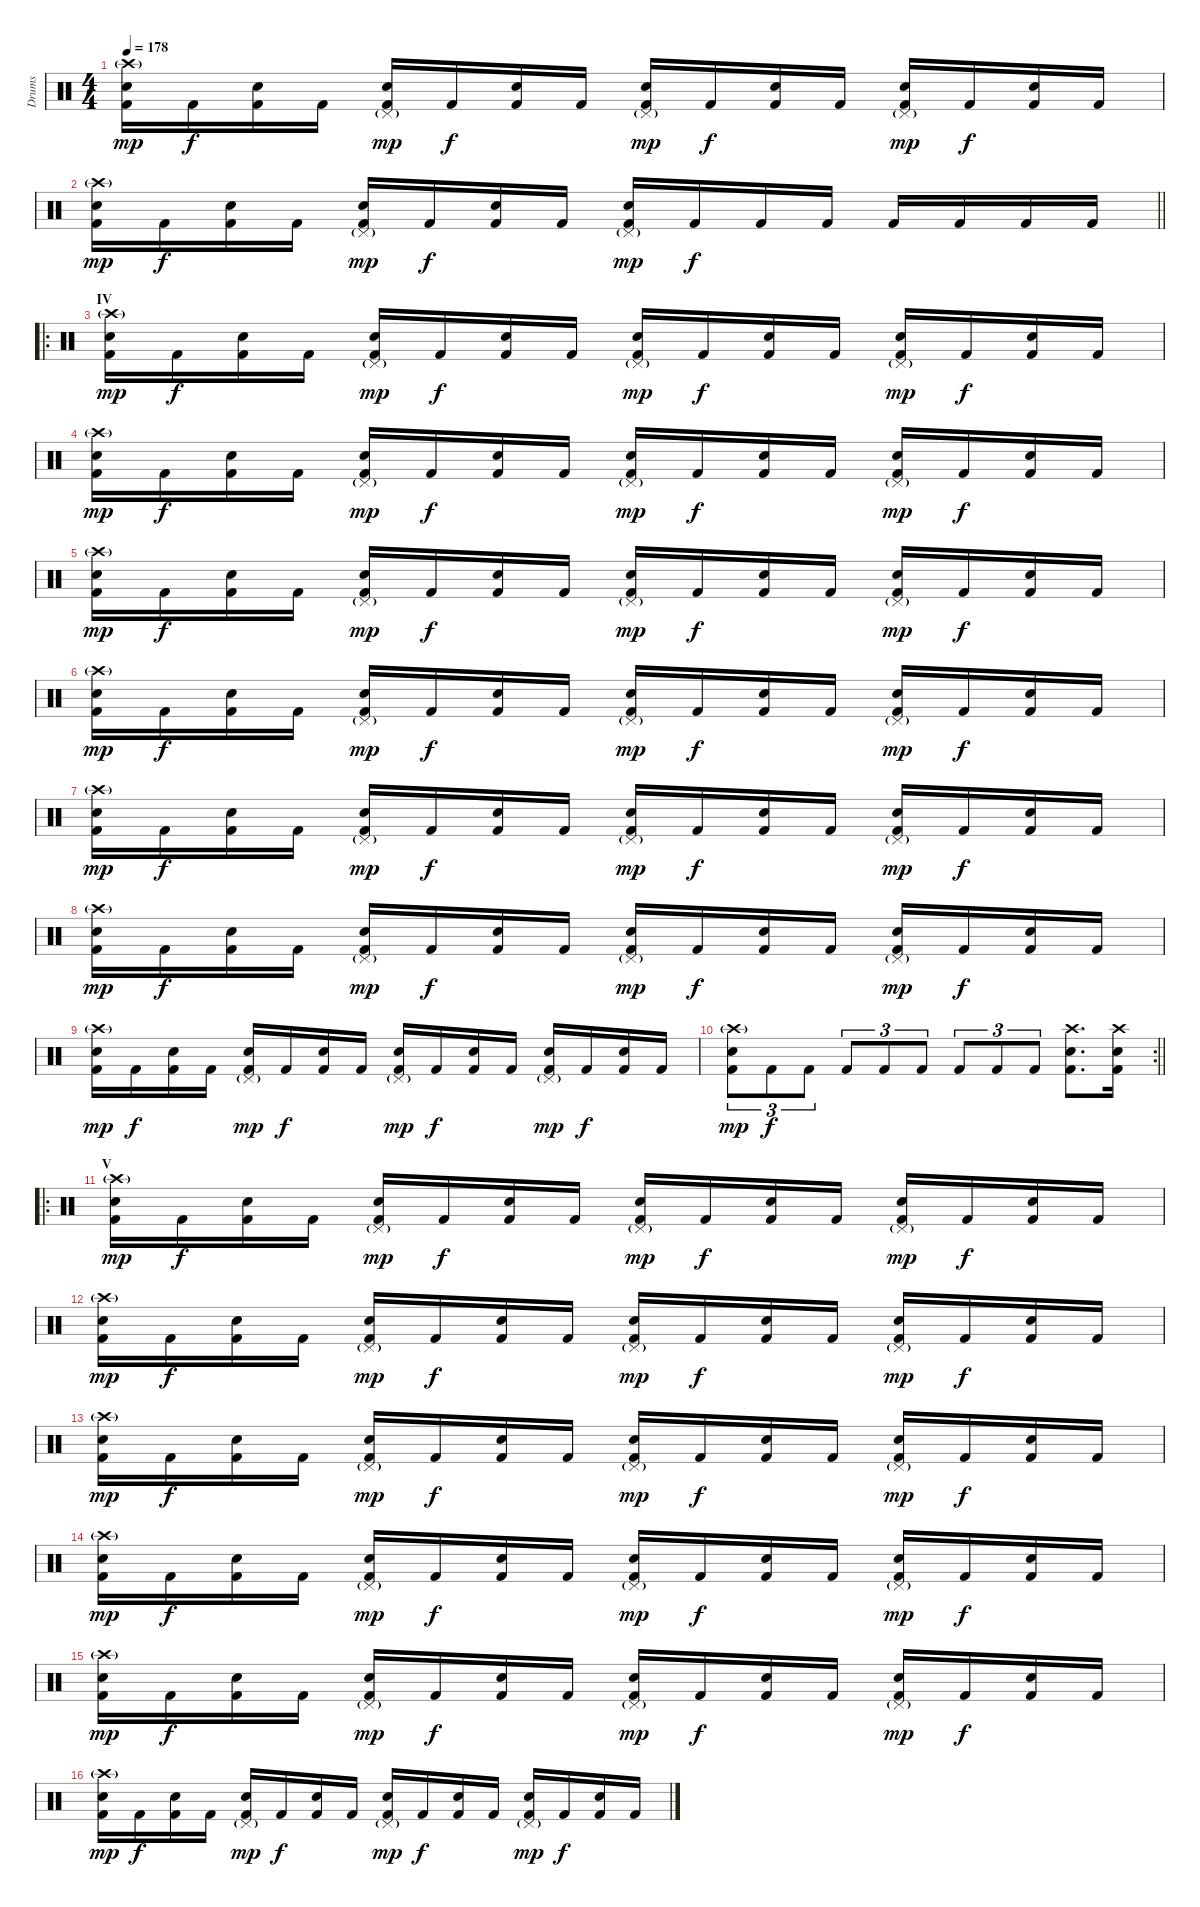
\track ("Drums" "Drums") {instrument percussion}
\staff {score}
\articulation defaults
\ts (4 4)
\tempo 178
\clef neutral
\ks c
("Crash high (hit)"{g} "Electric Snare (hit)" "Kick (hit) 2").16{dy mp} "Kick (hit) 2".16{dy f} ("Electric Snare (hit)" "Kick (hit) 2").16 "Kick (hit) 2".16 ("Pedal Hi-Hat (hit)"{g} "Electric Snare (hit)" "Kick (hit) 2").16{dy mp} "Kick (hit) 2".16{dy f} ("Electric Snare (hit)" "Kick (hit) 2").16 "Kick (hit) 2".16 ("Pedal Hi-Hat (hit)"{g} "Electric Snare (hit)" "Kick (hit) 2").16{dy mp} "Kick (hit) 2".16{dy f} ("Electric Snare (hit)" "Kick (hit) 2").16 "Kick (hit) 2".16 ("Pedal Hi-Hat (hit)"{g} "Electric Snare (hit)" "Kick (hit) 2").16{dy mp} "Kick (hit) 2".16{dy f} ("Electric Snare (hit)" "Kick (hit) 2").16 "Kick (hit) 2".16 |
\barLineRight lightlight
("Crash high (hit)"{g} "Electric Snare (hit)" "Kick (hit) 2").16{dy mp} "Kick (hit) 2".16{dy f} ("Electric Snare (hit)" "Kick (hit) 2").16 "Kick (hit) 2".16 ("Pedal Hi-Hat (hit)"{g} "Electric Snare (hit)" "Kick (hit) 2").16{dy mp} "Kick (hit) 2".16{dy f} ("Electric Snare (hit)" "Kick (hit) 2").16 "Kick (hit) 2".16 ("Pedal Hi-Hat (hit)"{g} "Electric Snare (hit)" "Kick (hit) 2").16{dy mp} "Kick (hit) 2".16{dy f} "Kick (hit) 2".16 "Kick (hit) 2".16 "Kick (hit) 2".16 "Kick (hit) 2".16 "Kick (hit) 2".16 "Kick (hit) 2".16 |
\ro
\section ("" "IV")
("Crash high (hit)"{g} "Electric Snare (hit)" "Kick (hit) 2").16{dy mp} "Kick (hit) 2".16{dy f} ("Electric Snare (hit)" "Kick (hit) 2").16 "Kick (hit) 2".16 ("Pedal Hi-Hat (hit)"{g} "Electric Snare (hit)" "Kick (hit) 2").16{dy mp} "Kick (hit) 2".16{dy f} ("Electric Snare (hit)" "Kick (hit) 2").16 "Kick (hit) 2".16 ("Pedal Hi-Hat (hit)"{g} "Electric Snare (hit)" "Kick (hit) 2").16{dy mp} "Kick (hit) 2".16{dy f} ("Electric Snare (hit)" "Kick (hit) 2").16 "Kick (hit) 2".16 ("Pedal Hi-Hat (hit)"{g} "Electric Snare (hit)" "Kick (hit) 2").16{dy mp} "Kick (hit) 2".16{dy f} ("Electric Snare (hit)" "Kick (hit) 2").16 "Kick (hit) 2".16 |
("Crash high (hit)"{g} "Electric Snare (hit)" "Kick (hit) 2").16{dy mp} "Kick (hit) 2".16{dy f} ("Electric Snare (hit)" "Kick (hit) 2").16 "Kick (hit) 2".16 ("Pedal Hi-Hat (hit)"{g} "Electric Snare (hit)" "Kick (hit) 2").16{dy mp} "Kick (hit) 2".16{dy f} ("Electric Snare (hit)" "Kick (hit) 2").16 "Kick (hit) 2".16 ("Pedal Hi-Hat (hit)"{g} "Electric Snare (hit)" "Kick (hit) 2").16{dy mp} "Kick (hit) 2".16{dy f} ("Electric Snare (hit)" "Kick (hit) 2").16 "Kick (hit) 2".16 ("Pedal Hi-Hat (hit)"{g} "Electric Snare (hit)" "Kick (hit) 2").16{dy mp} "Kick (hit) 2".16{dy f} ("Electric Snare (hit)" "Kick (hit) 2").16 "Kick (hit) 2".16 |
("Crash high (hit)"{g} "Electric Snare (hit)" "Kick (hit) 2").16{dy mp} "Kick (hit) 2".16{dy f} ("Electric Snare (hit)" "Kick (hit) 2").16 "Kick (hit) 2".16 ("Pedal Hi-Hat (hit)"{g} "Electric Snare (hit)" "Kick (hit) 2").16{dy mp} "Kick (hit) 2".16{dy f} ("Electric Snare (hit)" "Kick (hit) 2").16 "Kick (hit) 2".16 ("Pedal Hi-Hat (hit)"{g} "Electric Snare (hit)" "Kick (hit) 2").16{dy mp} "Kick (hit) 2".16{dy f} ("Electric Snare (hit)" "Kick (hit) 2").16 "Kick (hit) 2".16 ("Pedal Hi-Hat (hit)"{g} "Electric Snare (hit)" "Kick (hit) 2").16{dy mp} "Kick (hit) 2".16{dy f} ("Electric Snare (hit)" "Kick (hit) 2").16 "Kick (hit) 2".16 |
("Crash high (hit)"{g} "Electric Snare (hit)" "Kick (hit) 2").16{dy mp} "Kick (hit) 2".16{dy f} ("Electric Snare (hit)" "Kick (hit) 2").16 "Kick (hit) 2".16 ("Pedal Hi-Hat (hit)"{g} "Electric Snare (hit)" "Kick (hit) 2").16{dy mp} "Kick (hit) 2".16{dy f} ("Electric Snare (hit)" "Kick (hit) 2").16 "Kick (hit) 2".16 ("Pedal Hi-Hat (hit)"{g} "Electric Snare (hit)" "Kick (hit) 2").16{dy mp} "Kick (hit) 2".16{dy f} ("Electric Snare (hit)" "Kick (hit) 2").16 "Kick (hit) 2".16 ("Pedal Hi-Hat (hit)"{g} "Electric Snare (hit)" "Kick (hit) 2").16{dy mp} "Kick (hit) 2".16{dy f} ("Electric Snare (hit)" "Kick (hit) 2").16 "Kick (hit) 2".16 |
("Crash high (hit)"{g} "Electric Snare (hit)" "Kick (hit) 2").16{dy mp} "Kick (hit) 2".16{dy f} ("Electric Snare (hit)" "Kick (hit) 2").16 "Kick (hit) 2".16 ("Pedal Hi-Hat (hit)"{g} "Electric Snare (hit)" "Kick (hit) 2").16{dy mp} "Kick (hit) 2".16{dy f} ("Electric Snare (hit)" "Kick (hit) 2").16 "Kick (hit) 2".16 ("Pedal Hi-Hat (hit)"{g} "Electric Snare (hit)" "Kick (hit) 2").16{dy mp} "Kick (hit) 2".16{dy f} ("Electric Snare (hit)" "Kick (hit) 2").16 "Kick (hit) 2".16 ("Pedal Hi-Hat (hit)"{g} "Electric Snare (hit)" "Kick (hit) 2").16{dy mp} "Kick (hit) 2".16{dy f} ("Electric Snare (hit)" "Kick (hit) 2").16 "Kick (hit) 2".16 |
("Crash high (hit)"{g} "Electric Snare (hit)" "Kick (hit) 2").16{dy mp} "Kick (hit) 2".16{dy f} ("Electric Snare (hit)" "Kick (hit) 2").16 "Kick (hit) 2".16 ("Pedal Hi-Hat (hit)"{g} "Electric Snare (hit)" "Kick (hit) 2").16{dy mp} "Kick (hit) 2".16{dy f} ("Electric Snare (hit)" "Kick (hit) 2").16 "Kick (hit) 2".16 ("Pedal Hi-Hat (hit)"{g} "Electric Snare (hit)" "Kick (hit) 2").16{dy mp} "Kick (hit) 2".16{dy f} ("Electric Snare (hit)" "Kick (hit) 2").16 "Kick (hit) 2".16 ("Pedal Hi-Hat (hit)"{g} "Electric Snare (hit)" "Kick (hit) 2").16{dy mp} "Kick (hit) 2".16{dy f} ("Electric Snare (hit)" "Kick (hit) 2").16 "Kick (hit) 2".16 |
("Crash high (hit)"{g} "Electric Snare (hit)" "Kick (hit) 2").16{dy mp} "Kick (hit) 2".16{dy f} ("Electric Snare (hit)" "Kick (hit) 2").16 "Kick (hit) 2".16 ("Pedal Hi-Hat (hit)"{g} "Electric Snare (hit)" "Kick (hit) 2").16{dy mp} "Kick (hit) 2".16{dy f} ("Electric Snare (hit)" "Kick (hit) 2").16 "Kick (hit) 2".16 ("Pedal Hi-Hat (hit)"{g} "Electric Snare (hit)" "Kick (hit) 2").16{dy mp} "Kick (hit) 2".16{dy f} ("Electric Snare (hit)" "Kick (hit) 2").16 "Kick (hit) 2".16 ("Pedal Hi-Hat (hit)"{g} "Electric Snare (hit)" "Kick (hit) 2").16{dy mp} "Kick (hit) 2".16{dy f} ("Electric Snare (hit)" "Kick (hit) 2").16 "Kick (hit) 2".16 |
\rc 2
\barLineRight lightlight
("Crash high (hit)"{g} "Electric Snare (hit)" "Kick (hit) 2").8{tu (3 2) dy mp} "Kick (hit) 2".8{tu (3 2) dy f} "Kick (hit) 2".8{tu (3 2)} "Kick (hit) 2".8{tu (3 2)} "Kick (hit) 2".8{tu (3 2)} "Kick (hit) 2".8{tu (3 2)} "Kick (hit) 2".8{tu (3 2)} "Kick (hit) 2".8{tu (3 2)} "Kick (hit) 2".8{tu (3 2)} ("Crash high (hit)" "Electric Snare (hit)" "Kick (hit) 2").8{d} ("Crash high (hit)" "Electric Snare (hit)" "Kick (hit) 2").16 |
\ro
\section ("" "V")
("Crash high (hit)"{g} "Electric Snare (hit)" "Kick (hit) 2").16{dy mp} "Kick (hit) 2".16{dy f} ("Electric Snare (hit)" "Kick (hit) 2").16 "Kick (hit) 2".16 ("Pedal Hi-Hat (hit)"{g} "Electric Snare (hit)" "Kick (hit) 2").16{dy mp} "Kick (hit) 2".16{dy f} ("Electric Snare (hit)" "Kick (hit) 2").16 "Kick (hit) 2".16 ("Pedal Hi-Hat (hit)"{g} "Electric Snare (hit)" "Kick (hit) 2").16{dy mp} "Kick (hit) 2".16{dy f} ("Electric Snare (hit)" "Kick (hit) 2").16 "Kick (hit) 2".16 ("Pedal Hi-Hat (hit)"{g} "Electric Snare (hit)" "Kick (hit) 2").16{dy mp} "Kick (hit) 2".16{dy f} ("Electric Snare (hit)" "Kick (hit) 2").16 "Kick (hit) 2".16 |
("Crash high (hit)"{g} "Electric Snare (hit)" "Kick (hit) 2").16{dy mp} "Kick (hit) 2".16{dy f} ("Electric Snare (hit)" "Kick (hit) 2").16 "Kick (hit) 2".16 ("Pedal Hi-Hat (hit)"{g} "Electric Snare (hit)" "Kick (hit) 2").16{dy mp} "Kick (hit) 2".16{dy f} ("Electric Snare (hit)" "Kick (hit) 2").16 "Kick (hit) 2".16 ("Pedal Hi-Hat (hit)"{g} "Electric Snare (hit)" "Kick (hit) 2").16{dy mp} "Kick (hit) 2".16{dy f} ("Electric Snare (hit)" "Kick (hit) 2").16 "Kick (hit) 2".16 ("Pedal Hi-Hat (hit)"{g} "Electric Snare (hit)" "Kick (hit) 2").16{dy mp} "Kick (hit) 2".16{dy f} ("Electric Snare (hit)" "Kick (hit) 2").16 "Kick (hit) 2".16 |
("Crash high (hit)"{g} "Electric Snare (hit)" "Kick (hit) 2").16{dy mp} "Kick (hit) 2".16{dy f} ("Electric Snare (hit)" "Kick (hit) 2").16 "Kick (hit) 2".16 ("Pedal Hi-Hat (hit)"{g} "Electric Snare (hit)" "Kick (hit) 2").16{dy mp} "Kick (hit) 2".16{dy f} ("Electric Snare (hit)" "Kick (hit) 2").16 "Kick (hit) 2".16 ("Pedal Hi-Hat (hit)"{g} "Electric Snare (hit)" "Kick (hit) 2").16{dy mp} "Kick (hit) 2".16{dy f} ("Electric Snare (hit)" "Kick (hit) 2").16 "Kick (hit) 2".16 ("Pedal Hi-Hat (hit)"{g} "Electric Snare (hit)" "Kick (hit) 2").16{dy mp} "Kick (hit) 2".16{dy f} ("Electric Snare (hit)" "Kick (hit) 2").16 "Kick (hit) 2".16 |
("Crash high (hit)"{g} "Electric Snare (hit)" "Kick (hit) 2").16{dy mp} "Kick (hit) 2".16{dy f} ("Electric Snare (hit)" "Kick (hit) 2").16 "Kick (hit) 2".16 ("Pedal Hi-Hat (hit)"{g} "Electric Snare (hit)" "Kick (hit) 2").16{dy mp} "Kick (hit) 2".16{dy f} ("Electric Snare (hit)" "Kick (hit) 2").16 "Kick (hit) 2".16 ("Pedal Hi-Hat (hit)"{g} "Electric Snare (hit)" "Kick (hit) 2").16{dy mp} "Kick (hit) 2".16{dy f} ("Electric Snare (hit)" "Kick (hit) 2").16 "Kick (hit) 2".16 ("Pedal Hi-Hat (hit)"{g} "Electric Snare (hit)" "Kick (hit) 2").16{dy mp} "Kick (hit) 2".16{dy f} ("Electric Snare (hit)" "Kick (hit) 2").16 "Kick (hit) 2".16 |
("Crash high (hit)"{g} "Electric Snare (hit)" "Kick (hit) 2").16{dy mp} "Kick (hit) 2".16{dy f} ("Electric Snare (hit)" "Kick (hit) 2").16 "Kick (hit) 2".16 ("Pedal Hi-Hat (hit)"{g} "Electric Snare (hit)" "Kick (hit) 2").16{dy mp} "Kick (hit) 2".16{dy f} ("Electric Snare (hit)" "Kick (hit) 2").16 "Kick (hit) 2".16 ("Pedal Hi-Hat (hit)"{g} "Electric Snare (hit)" "Kick (hit) 2").16{dy mp} "Kick (hit) 2".16{dy f} ("Electric Snare (hit)" "Kick (hit) 2").16 "Kick (hit) 2".16 ("Pedal Hi-Hat (hit)"{g} "Electric Snare (hit)" "Kick (hit) 2").16{dy mp} "Kick (hit) 2".16{dy f} ("Electric Snare (hit)" "Kick (hit) 2").16 "Kick (hit) 2".16 |
("Crash high (hit)"{g} "Electric Snare (hit)" "Kick (hit) 2").16{dy mp} "Kick (hit) 2".16{dy f} ("Electric Snare (hit)" "Kick (hit) 2").16 "Kick (hit) 2".16 ("Pedal Hi-Hat (hit)"{g} "Electric Snare (hit)" "Kick (hit) 2").16{dy mp} "Kick (hit) 2".16{dy f} ("Electric Snare (hit)" "Kick (hit) 2").16 "Kick (hit) 2".16 ("Pedal Hi-Hat (hit)"{g} "Electric Snare (hit)" "Kick (hit) 2").16{dy mp} "Kick (hit) 2".16{dy f} ("Electric Snare (hit)" "Kick (hit) 2").16 "Kick (hit) 2".16 ("Pedal Hi-Hat (hit)"{g} "Electric Snare (hit)" "Kick (hit) 2").16{dy mp} "Kick (hit) 2".16{dy f} ("Electric Snare (hit)" "Kick (hit) 2").16 "Kick (hit) 2".16
